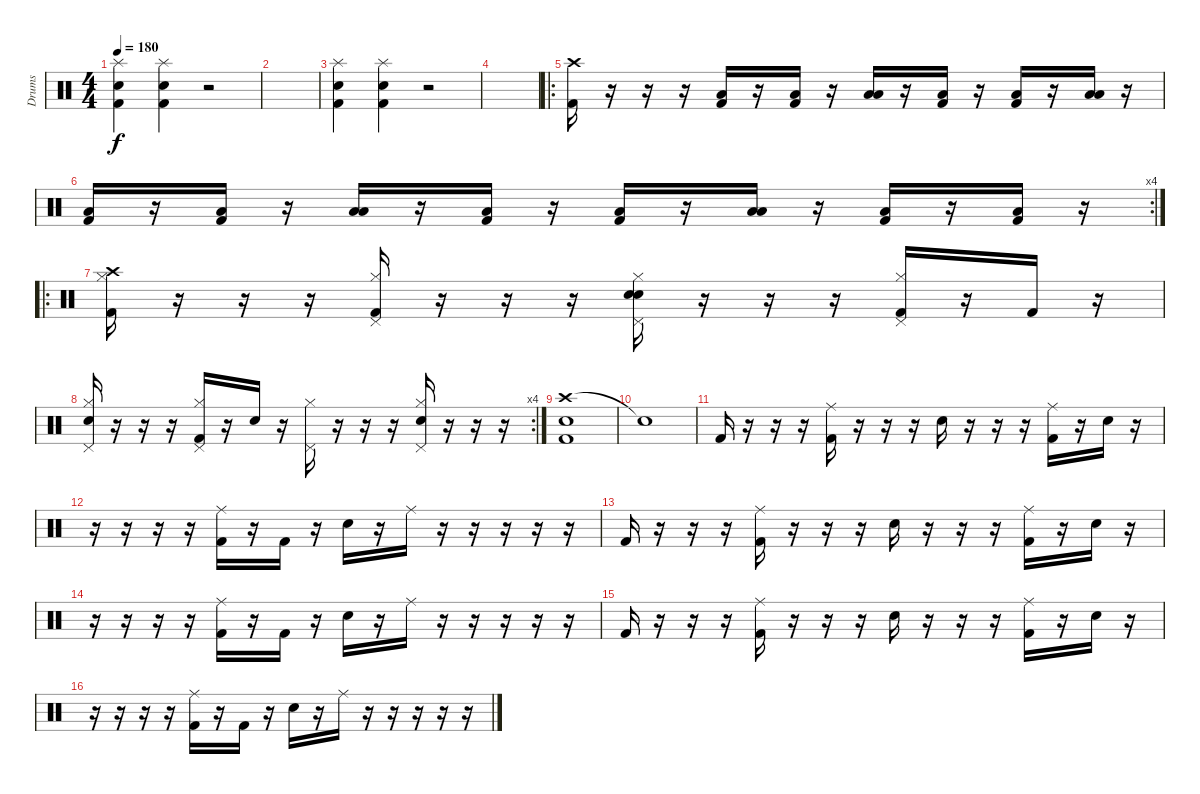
\track ("Drums" "Drums") {instrument percussion}
\staff {score}
\articulation defaults
\ts (4 4)
\tempo 180
\clef neutral
\ks c
("Splash (hit)" "Electric Snare (hit)" "Kick (hit) 2").4{dy f} ("Splash (hit)" "Electric Snare (hit)" "Kick (hit) 2").4 r.2 |
|
("Splash (hit)" "Electric Snare (hit)" "Kick (hit) 2").4 ("Splash (hit)" "Electric Snare (hit)" "Kick (hit) 2").4 r.2 |
|
\ro
("Crash high (hit)" "Kick (hit) 2").16 r.16 r.16 r.16 ("Low Tom (hit)" "Kick (hit) 2").16 r.16 ("Low Tom (hit)" "Kick (hit) 2").16 r.16 ("Low Floor Tom (hit)" "Low Floor Tom (hit)").16 r.16 ("Low Tom (hit)" "Kick (hit) 2").16 r.16 ("Low Tom (hit)" "Kick (hit) 2").16 r.16 ("Low Floor Tom (hit)" "Low Floor Tom (hit)").16 r.16 |
\rc 4
("Low Tom (hit)" "Kick (hit) 2").16 r.16 ("Low Tom (hit)" "Kick (hit) 2").16 r.16 ("Low Floor Tom (hit)" "Low Floor Tom (hit)").16 r.16 ("Low Tom (hit)" "Kick (hit) 2").16 r.16 ("Low Tom (hit)" "Kick (hit) 2").16 r.16 ("Low Floor Tom (hit)" "Low Floor Tom (hit)").16 r.16 ("Low Tom (hit)" "Kick (hit) 2").16 r.16 ("Low Tom (hit)" "Kick (hit) 2").16 r.16 |
\ro
("Crash high (hit)" "Hi-Hat (closed)" "Kick (hit) 2").16 r.16 r.16 r.16 ("Pedal Hi-Hat (hit)" "Hi-Hat (closed)" "Kick (hit) 2").16 r.16 r.16 r.16 ("Pedal Hi-Hat (hit)" "Hi-Hat (closed)" "Snare (hit)" "Electric Snare (hit)").16 r.16 r.16 r.16 ("Pedal Hi-Hat (hit)" "Hi-Hat (closed)" "Kick (hit) 2").16 r.16 "Kick (hit) 2".16 r.16 |
\rc 4
("Pedal Hi-Hat (hit)" "Hi-Hat (closed)" "Electric Snare (hit)").16 r.16 r.16 r.16 ("Pedal Hi-Hat (hit)" "Hi-Hat (closed)" "Kick (hit) 2").16 r.16 "Electric Snare (hit)".16 r.16 ("Pedal Hi-Hat (hit)" "Hi-Hat (closed)").16 r.16 r.16 r.16 ("Pedal Hi-Hat (hit)" "Hi-Hat (closed)" "Electric Snare (hit)").16 r.16 r.16 r.16 |
("Crash high (hit)" "Electric Snare (hit)" "Kick (hit) 2").1 |
"Snare (hit)"{t}.1 |
"Kick (hit) 2".16 r.16 r.16 r.16 ("Ride (middle)" "Kick (hit) 2").16 r.16 r.16 r.16 "Electric Snare (hit)".16 r.16 r.16 r.16 ("Ride (middle)" "Kick (hit) 2").16 r.16 "Electric Snare (hit)".16 r.16 |
r.16 r.16 r.16 r.16 ("Ride (middle)" "Kick (hit) 2").16 r.16 "Kick (hit) 2".16 r.16 "Electric Snare (hit)".16 r.16 "Ride (middle)".16 r.16 r.16 r.16 r.16 r.16 |
"Kick (hit) 2".16 r.16 r.16 r.16 ("Ride (middle)" "Kick (hit) 2").16 r.16 r.16 r.16 "Electric Snare (hit)".16 r.16 r.16 r.16 ("Ride (middle)" "Kick (hit) 2").16 r.16 "Electric Snare (hit)".16 r.16 |
r.16 r.16 r.16 r.16 ("Ride (middle)" "Kick (hit) 2").16 r.16 "Kick (hit) 2".16 r.16 "Electric Snare (hit)".16 r.16 "Ride (middle)".16 r.16 r.16 r.16 r.16 r.16 |
"Kick (hit) 2".16 r.16 r.16 r.16 ("Ride (middle)" "Kick (hit) 2").16 r.16 r.16 r.16 "Electric Snare (hit)".16 r.16 r.16 r.16 ("Ride (middle)" "Kick (hit) 2").16 r.16 "Electric Snare (hit)".16 r.16 |
r.16 r.16 r.16 r.16 ("Ride (middle)" "Kick (hit) 2").16 r.16 "Kick (hit) 2".16 r.16 "Electric Snare (hit)".16 r.16 "Ride (middle)".16 r.16 r.16 r.16 r.16 r.16
